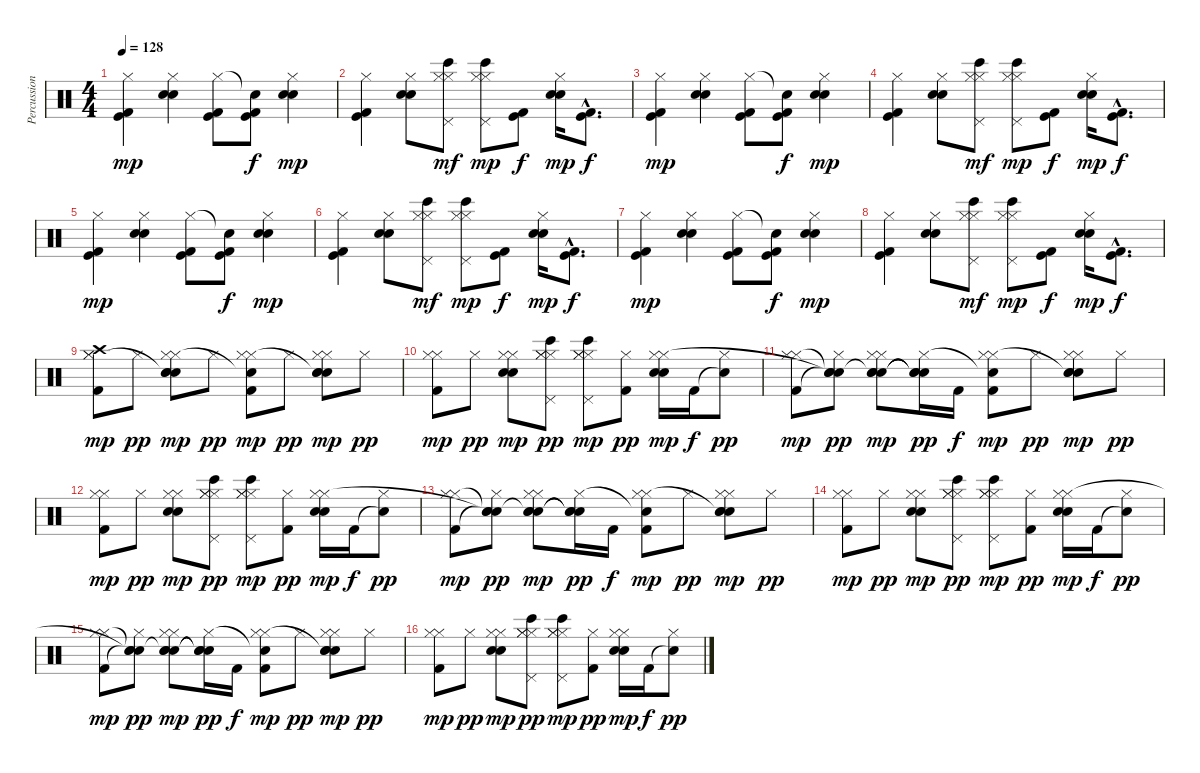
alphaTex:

\track ("Percussion" "Percussion") {instrument percussion}
\staff {score}
\articulation defaults
\ts (4 4)
\tempo 128
\clef neutral
\ks c
("Kick (hit) 2" "Kick (hit)" "Hi-Hat (closed)").4{dy mp} ("Electric Snare (hit)" "Snare (hit) 2" "Hi-Hat (closed)").4 ("Kick (hit) 2" "Kick (hit)" "Hi-Hat (closed)").8 ("Kick (hit) 2" "Kick (hit)" "Snare (hit)"{t}).8{dy f} ("Electric Snare (hit)" "Snare (hit) 2" "Hi-Hat (closed)").4{dy mp} |
("Kick (hit) 2" "Kick (hit)" "Hi-Hat (closed)").4 ("Electric Snare (hit)" "Snare (hit) 2" "Hi-Hat (closed)").8 ("Pedal Hi-Hat (hit)" "Hi-Hat (closed)" "Bongo High (hit)" "Hi-Hat (closed)").8{dy mf} ("Pedal Hi-Hat (hit)" "Hi-Hat (closed)" "Bongo High (hit)" "Hi-Hat (closed)").8{dy mp} ("Kick (hit) 2" "Kick (hit)").8{dy f} ("Electric Snare (hit)" "Snare (hit) 2" "Hi-Hat (closed)").16{dy mp} ("Kick (hit) 2"{hac} "Kick (hit)"{hac}).8{d dy f} |
("Kick (hit) 2" "Kick (hit)" "Hi-Hat (closed)").4{dy mp} ("Electric Snare (hit)" "Snare (hit) 2" "Hi-Hat (closed)").4 ("Kick (hit) 2" "Kick (hit)" "Hi-Hat (closed)").8 ("Kick (hit) 2" "Kick (hit)" "Snare (hit)"{t}).8{dy f} ("Electric Snare (hit)" "Snare (hit) 2" "Hi-Hat (closed)").4{dy mp} |
("Kick (hit) 2" "Kick (hit)" "Hi-Hat (closed)").4 ("Electric Snare (hit)" "Snare (hit) 2" "Hi-Hat (closed)").8 ("Pedal Hi-Hat (hit)" "Hi-Hat (closed)" "Bongo High (hit)" "Hi-Hat (closed)").8{dy mf} ("Pedal Hi-Hat (hit)" "Hi-Hat (closed)" "Bongo High (hit)" "Hi-Hat (closed)").8{dy mp} ("Kick (hit) 2" "Kick (hit)").8{dy f} ("Electric Snare (hit)" "Snare (hit) 2" "Hi-Hat (closed)").16{dy mp} ("Kick (hit) 2"{hac} "Kick (hit)"{hac}).8{d dy f} |
("Kick (hit) 2" "Kick (hit)" "Hi-Hat (closed)").4{dy mp} ("Electric Snare (hit)" "Snare (hit) 2" "Hi-Hat (closed)").4 ("Kick (hit) 2" "Kick (hit)" "Hi-Hat (closed)").8 ("Kick (hit) 2" "Kick (hit)" "Snare (hit)"{t}).8{dy f} ("Electric Snare (hit)" "Snare (hit) 2" "Hi-Hat (closed)").4{dy mp} |
("Kick (hit) 2" "Kick (hit)" "Hi-Hat (closed)").4 ("Electric Snare (hit)" "Snare (hit) 2" "Hi-Hat (closed)").8 ("Pedal Hi-Hat (hit)" "Hi-Hat (closed)" "Bongo High (hit)" "Hi-Hat (closed)").8{dy mf} ("Pedal Hi-Hat (hit)" "Hi-Hat (closed)" "Bongo High (hit)" "Hi-Hat (closed)").8{dy mp} ("Kick (hit) 2" "Kick (hit)").8{dy f} ("Electric Snare (hit)" "Snare (hit) 2" "Hi-Hat (closed)").16{dy mp} ("Kick (hit) 2"{hac} "Kick (hit)"{hac}).8{d dy f} |
("Kick (hit) 2" "Kick (hit)" "Hi-Hat (closed)").4{dy mp} ("Electric Snare (hit)" "Snare (hit) 2" "Hi-Hat (closed)").4 ("Kick (hit) 2" "Kick (hit)" "Hi-Hat (closed)").8 ("Kick (hit) 2" "Kick (hit)" "Snare (hit)"{t}).8{dy f} ("Electric Snare (hit)" "Snare (hit) 2" "Hi-Hat (closed)").4{dy mp} |
("Kick (hit) 2" "Kick (hit)" "Hi-Hat (closed)").4 ("Electric Snare (hit)" "Snare (hit) 2" "Hi-Hat (closed)").8 ("Pedal Hi-Hat (hit)" "Hi-Hat (closed)" "Bongo High (hit)" "Hi-Hat (closed)").8{dy mf} ("Pedal Hi-Hat (hit)" "Hi-Hat (closed)" "Bongo High (hit)" "Hi-Hat (closed)").8{dy mp} ("Kick (hit) 2" "Kick (hit)").8{dy f} ("Electric Snare (hit)" "Snare (hit) 2" "Hi-Hat (closed)").16{dy mp} ("Kick (hit) 2"{hac} "Kick (hit)"{hac}).8{d dy f} |
("Kick (hit) 2" "Hi-Hat (closed)" "Crash high (hit)" "Hi-Hat (closed)").8{dy mp} "Hi-Hat (closed)".8{dy pp} ("Electric Snare (hit)" "Snare (hit) 2" "Hi-Hat (closed)" "Snare (hit)"{t} "Hi-Hat (closed)").8{dy mp} "Hi-Hat (closed)".8{dy pp} ("Kick (hit) 2" "Hi-Hat (closed)" "Snare (hit)"{t} "Hi-Hat (closed)").8{dy mp} "Hi-Hat (closed)".8{dy pp} ("Electric Snare (hit)" "Snare (hit) 2" "Hi-Hat (closed)" "Snare (hit)"{t} "Hi-Hat (closed)").8{dy mp} "Hi-Hat (closed)".8{dy pp} |
("Kick (hit) 2" "Hi-Hat (closed)" "Hi-Hat (closed)").8{dy mp} "Hi-Hat (closed)".8{dy pp} ("Electric Snare (hit)" "Snare (hit) 2" "Hi-Hat (closed)" "Hi-Hat (closed)").8{dy mp} ("Pedal Hi-Hat (hit)" "Hi-Hat (closed)" "Bongo High (hit)" "Hi-Hat (closed)" "Hi-Hat (closed)").8{dy pp} ("Pedal Hi-Hat (hit)" "Hi-Hat (closed)" "Bongo High (hit)" "Hi-Hat (closed)" "Hi-Hat (closed)").8{dy mp} ("Kick (hit) 2" "Hi-Hat (closed)").8{dy pp} ("Electric Snare (hit)" "Snare (hit) 2" "Hi-Hat (closed)" "Hi-Hat (closed)").16{dy mp} "Kick (hit) 2".16{dy f} ("Snare (hit)"{t} "Hi-Hat (closed)").8{dy pp} |
("Kick (hit) 2" "Hi-Hat (closed)" "Hi-Hat (closed)").8{dy mp} ("Snare (hit)"{t} "Hi-Hat (closed)" "Snare (hit)"{t} "Snare (hit)"{t}).8{dy pp} ("Electric Snare (hit)" "Snare (hit) 2" "Hi-Hat (closed)" "Snare (hit)"{t} "Hi-Hat (closed)").8{dy mp} ("Snare (hit)"{t} "Snare (hit)"{t} "Hi-Hat (closed)" "Snare (hit)"{t}).16{dy pp} "Kick (hit) 2".16{dy f} ("Kick (hit) 2" "Hi-Hat (closed)" "Snare (hit)"{t} "Hi-Hat (closed)").8{dy mp} "Hi-Hat (closed)".8{dy pp} ("Electric Snare (hit)" "Snare (hit) 2" "Hi-Hat (closed)" "Snare (hit)"{t} "Hi-Hat (closed)").8{dy mp} "Hi-Hat (closed)".8{dy pp} |
("Kick (hit) 2" "Hi-Hat (closed)" "Hi-Hat (closed)").8{dy mp} "Hi-Hat (closed)".8{dy pp} ("Electric Snare (hit)" "Snare (hit) 2" "Hi-Hat (closed)" "Hi-Hat (closed)").8{dy mp} ("Pedal Hi-Hat (hit)" "Hi-Hat (closed)" "Bongo High (hit)" "Hi-Hat (closed)" "Hi-Hat (closed)").8{dy pp} ("Pedal Hi-Hat (hit)" "Hi-Hat (closed)" "Bongo High (hit)" "Hi-Hat (closed)" "Hi-Hat (closed)").8{dy mp} ("Kick (hit) 2" "Hi-Hat (closed)").8{dy pp} ("Electric Snare (hit)" "Snare (hit) 2" "Hi-Hat (closed)" "Hi-Hat (closed)").16{dy mp} "Kick (hit) 2".16{dy f} ("Snare (hit)"{t} "Hi-Hat (closed)").8{dy pp} |
("Kick (hit) 2" "Hi-Hat (closed)" "Hi-Hat (closed)").8{dy mp} ("Snare (hit)"{t} "Hi-Hat (closed)" "Snare (hit)"{t} "Snare (hit)"{t}).8{dy pp} ("Electric Snare (hit)" "Snare (hit) 2" "Hi-Hat (closed)" "Snare (hit)"{t} "Hi-Hat (closed)").8{dy mp} ("Snare (hit)"{t} "Snare (hit)"{t} "Hi-Hat (closed)" "Snare (hit)"{t}).16{dy pp} "Kick (hit) 2".16{dy f} ("Kick (hit) 2" "Hi-Hat (closed)" "Snare (hit)"{t} "Hi-Hat (closed)").8{dy mp} "Hi-Hat (closed)".8{dy pp} ("Electric Snare (hit)" "Snare (hit) 2" "Hi-Hat (closed)" "Snare (hit)"{t} "Hi-Hat (closed)").8{dy mp} "Hi-Hat (closed)".8{dy pp} |
("Kick (hit) 2" "Hi-Hat (closed)" "Hi-Hat (closed)").8{dy mp} "Hi-Hat (closed)".8{dy pp} ("Electric Snare (hit)" "Snare (hit) 2" "Hi-Hat (closed)" "Hi-Hat (closed)").8{dy mp} ("Pedal Hi-Hat (hit)" "Hi-Hat (closed)" "Bongo High (hit)" "Hi-Hat (closed)" "Hi-Hat (closed)").8{dy pp} ("Pedal Hi-Hat (hit)" "Hi-Hat (closed)" "Bongo High (hit)" "Hi-Hat (closed)" "Hi-Hat (closed)").8{dy mp} ("Kick (hit) 2" "Hi-Hat (closed)").8{dy pp} ("Electric Snare (hit)" "Snare (hit) 2" "Hi-Hat (closed)" "Hi-Hat (closed)").16{dy mp} "Kick (hit) 2".16{dy f} ("Snare (hit)"{t} "Hi-Hat (closed)").8{dy pp} |
("Kick (hit) 2" "Hi-Hat (closed)" "Hi-Hat (closed)").8{dy mp} ("Snare (hit)"{t} "Hi-Hat (closed)" "Snare (hit)"{t} "Snare (hit)"{t}).8{dy pp} ("Electric Snare (hit)" "Snare (hit) 2" "Hi-Hat (closed)" "Snare (hit)"{t} "Hi-Hat (closed)").8{dy mp} ("Snare (hit)"{t} "Snare (hit)"{t} "Hi-Hat (closed)" "Snare (hit)"{t}).16{dy pp} "Kick (hit) 2".16{dy f} ("Kick (hit) 2" "Hi-Hat (closed)" "Snare (hit)"{t} "Hi-Hat (closed)").8{dy mp} "Hi-Hat (closed)".8{dy pp} ("Electric Snare (hit)" "Snare (hit) 2" "Hi-Hat (closed)" "Snare (hit)"{t} "Hi-Hat (closed)").8{dy mp} "Hi-Hat (closed)".8{dy pp} |
("Kick (hit) 2" "Hi-Hat (closed)" "Hi-Hat (closed)").8{dy mp} "Hi-Hat (closed)".8{dy pp} ("Electric Snare (hit)" "Snare (hit) 2" "Hi-Hat (closed)" "Hi-Hat (closed)").8{dy mp} ("Pedal Hi-Hat (hit)" "Hi-Hat (closed)" "Bongo High (hit)" "Hi-Hat (closed)" "Hi-Hat (closed)").8{dy pp} ("Pedal Hi-Hat (hit)" "Hi-Hat (closed)" "Bongo High (hit)" "Hi-Hat (closed)" "Hi-Hat (closed)").8{dy mp} ("Kick (hit) 2" "Hi-Hat (closed)").8{dy pp} ("Electric Snare (hit)" "Snare (hit) 2" "Hi-Hat (closed)" "Hi-Hat (closed)").16{dy mp} "Kick (hit) 2".16{dy f} ("Snare (hit)"{t} "Hi-Hat (closed)").8{dy pp}
